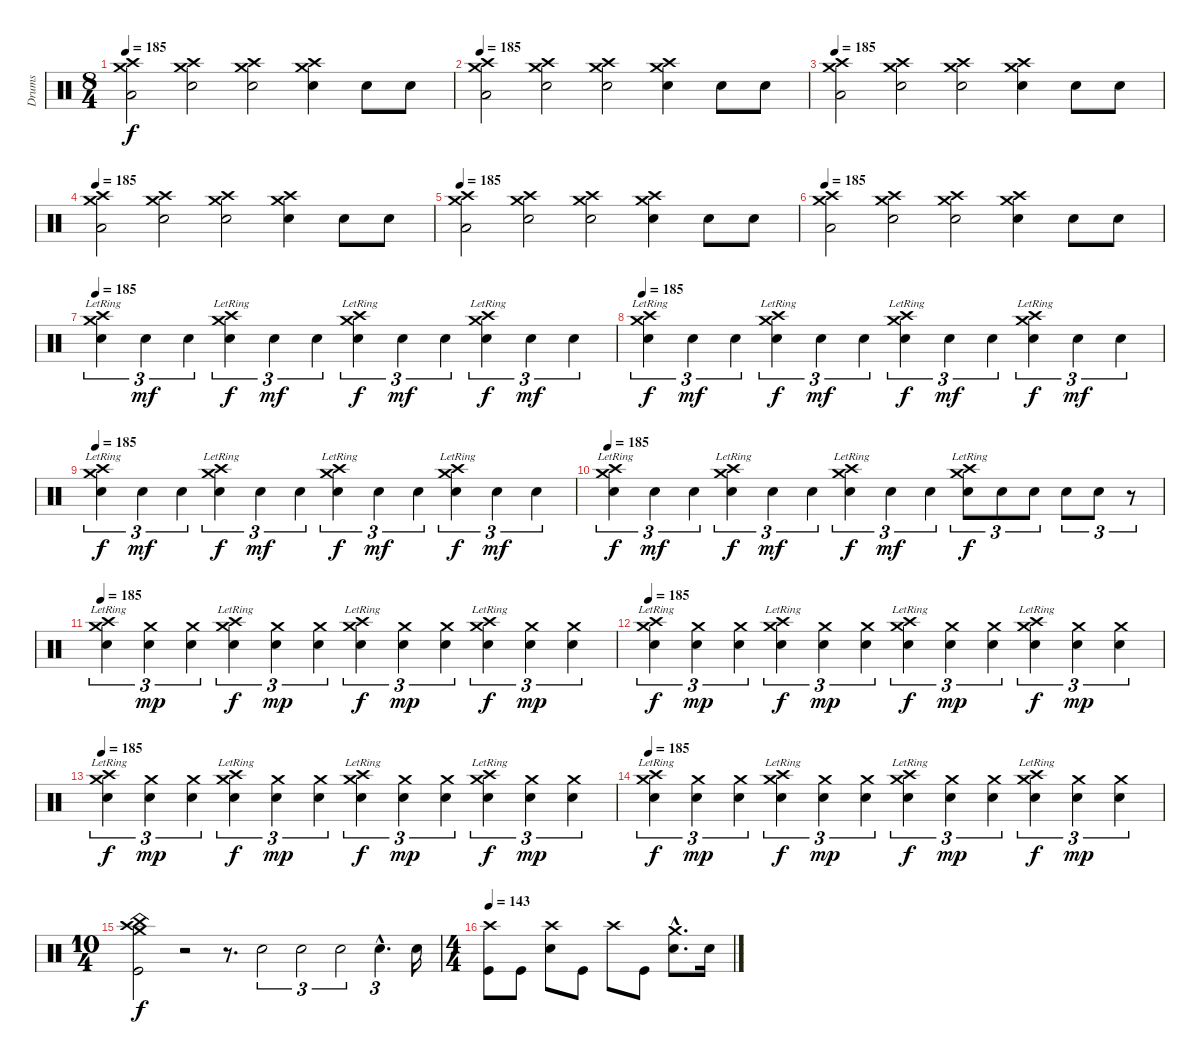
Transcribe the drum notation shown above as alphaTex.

\track ("Drums" "Drums") {instrument percussion}
\staff {score}
\articulation defaults
\ts (8 4)
\tempo 185
\clef neutral
\ks c
("Crash high (hit)" "Low Floor Tom (hit)" "Crash medium (hit)").2{dy f} ("Crash high (hit)" "Electric Snare (hit)" "Crash medium (hit)").2 ("Crash high (hit)" "Electric Snare (hit)" "Crash medium (hit)").2 ("Crash high (hit)" "Electric Snare (hit)" "Crash medium (hit)").4 "Electric Snare (hit)".8 "Electric Snare (hit)".8 |
\tempo 185
("Crash high (hit)" "Low Floor Tom (hit)" "Crash medium (hit)").2 ("Crash high (hit)" "Electric Snare (hit)" "Crash medium (hit)").2 ("Crash high (hit)" "Electric Snare (hit)" "Crash medium (hit)").2 ("Crash high (hit)" "Electric Snare (hit)" "Crash medium (hit)").4 "Electric Snare (hit)".8 "Electric Snare (hit)".8 |
\tempo 185
("Crash high (hit)" "Low Floor Tom (hit)" "Crash medium (hit)").2 ("Crash high (hit)" "Electric Snare (hit)" "Crash medium (hit)").2 ("Crash high (hit)" "Electric Snare (hit)" "Crash medium (hit)").2 ("Crash high (hit)" "Electric Snare (hit)" "Crash medium (hit)").4 "Electric Snare (hit)".8 "Electric Snare (hit)".8 |
\tempo 185
("Crash high (hit)" "Low Floor Tom (hit)" "Crash medium (hit)").2 ("Crash high (hit)" "Electric Snare (hit)" "Crash medium (hit)").2 ("Crash high (hit)" "Electric Snare (hit)" "Crash medium (hit)").2 ("Crash high (hit)" "Electric Snare (hit)" "Crash medium (hit)").4 "Electric Snare (hit)".8 "Electric Snare (hit)".8 |
\tempo 185
("Crash high (hit)" "Low Floor Tom (hit)" "Crash medium (hit)").2 ("Crash high (hit)" "Electric Snare (hit)" "Crash medium (hit)").2 ("Crash high (hit)" "Electric Snare (hit)" "Crash medium (hit)").2 ("Crash high (hit)" "Electric Snare (hit)" "Crash medium (hit)").4 "Electric Snare (hit)".8 "Electric Snare (hit)".8 |
\tempo 185
("Crash high (hit)" "Low Floor Tom (hit)" "Crash medium (hit)").2 ("Crash high (hit)" "Electric Snare (hit)" "Crash medium (hit)").2 ("Crash high (hit)" "Electric Snare (hit)" "Crash medium (hit)").2 ("Crash high (hit)" "Electric Snare (hit)" "Crash medium (hit)").4 "Electric Snare (hit)".8 "Electric Snare (hit)".8 |
\tempo 185
("Crash medium (hit)"{lr} "Crash high (hit)"{lr} "Electric Snare (hit)").4{tu (3 2)} "Electric Snare (hit)".4{tu (3 2) dy mf} "Electric Snare (hit)".4{tu (3 2)} ("Crash medium (hit)"{lr} "Crash high (hit)"{lr} "Electric Snare (hit)").4{tu (3 2) dy f} "Electric Snare (hit)".4{tu (3 2) dy mf} "Electric Snare (hit)".4{tu (3 2)} ("Crash medium (hit)"{lr} "Crash high (hit)"{lr} "Electric Snare (hit)").4{tu (3 2) dy f} "Electric Snare (hit)".4{tu (3 2) dy mf} "Electric Snare (hit)".4{tu (3 2)} ("Crash medium (hit)"{lr} "Crash high (hit)"{lr} "Electric Snare (hit)").4{tu (3 2) dy f} "Electric Snare (hit)".4{tu (3 2) dy mf} "Electric Snare (hit)".4{tu (3 2)} |
\tempo 185
("Crash medium (hit)"{lr} "Crash high (hit)"{lr} "Electric Snare (hit)").4{tu (3 2) dy f} "Electric Snare (hit)".4{tu (3 2) dy mf} "Electric Snare (hit)".4{tu (3 2)} ("Crash medium (hit)"{lr} "Crash high (hit)"{lr} "Electric Snare (hit)").4{tu (3 2) dy f} "Electric Snare (hit)".4{tu (3 2) dy mf} "Electric Snare (hit)".4{tu (3 2)} ("Crash medium (hit)"{lr} "Crash high (hit)"{lr} "Electric Snare (hit)").4{tu (3 2) dy f} "Electric Snare (hit)".4{tu (3 2) dy mf} "Electric Snare (hit)".4{tu (3 2)} ("Crash medium (hit)"{lr} "Crash high (hit)"{lr} "Electric Snare (hit)").4{tu (3 2) dy f} "Electric Snare (hit)".4{tu (3 2) dy mf} "Electric Snare (hit)".4{tu (3 2)} |
\tempo 185
("Crash medium (hit)"{lr} "Crash high (hit)"{lr} "Electric Snare (hit)").4{tu (3 2) dy f} "Electric Snare (hit)".4{tu (3 2) dy mf} "Electric Snare (hit)".4{tu (3 2)} ("Crash medium (hit)"{lr} "Crash high (hit)"{lr} "Electric Snare (hit)").4{tu (3 2) dy f} "Electric Snare (hit)".4{tu (3 2) dy mf} "Electric Snare (hit)".4{tu (3 2)} ("Crash medium (hit)"{lr} "Crash high (hit)"{lr} "Electric Snare (hit)").4{tu (3 2) dy f} "Electric Snare (hit)".4{tu (3 2) dy mf} "Electric Snare (hit)".4{tu (3 2)} ("Crash medium (hit)"{lr} "Crash high (hit)"{lr} "Electric Snare (hit)").4{tu (3 2) dy f} "Electric Snare (hit)".4{tu (3 2) dy mf} "Electric Snare (hit)".4{tu (3 2)} |
\tempo 185
("Crash medium (hit)"{lr} "Crash high (hit)"{lr} "Electric Snare (hit)").4{tu (3 2) dy f} "Electric Snare (hit)".4{tu (3 2) dy mf} "Electric Snare (hit)".4{tu (3 2)} ("Crash medium (hit)"{lr} "Crash high (hit)"{lr} "Electric Snare (hit)").4{tu (3 2) dy f} "Electric Snare (hit)".4{tu (3 2) dy mf} "Electric Snare (hit)".4{tu (3 2)} ("Crash medium (hit)"{lr} "Crash high (hit)"{lr} "Electric Snare (hit)").4{tu (3 2) dy f} "Electric Snare (hit)".4{tu (3 2) dy mf} "Electric Snare (hit)".4{tu (3 2)} ("Crash medium (hit)"{lr} "Crash high (hit)"{lr} "Electric Snare (hit)").8{tu (3 2) dy f} "Electric Snare (hit)".8{tu (3 2)} "Electric Snare (hit)".8{tu (3 2)} "Electric Snare (hit)".8{tu (3 2)} "Electric Snare (hit)".8{tu (3 2)} r.8{tu (3 2)} |
\tempo 185
("Crash medium (hit)"{lr} "Crash high (hit)"{lr} "Electric Snare (hit)").4{tu (3 2)} ("Crash medium (hit)" "Electric Snare (hit)").4{tu (3 2) dy mp} ("Crash medium (hit)" "Electric Snare (hit)").4{tu (3 2)} ("Crash medium (hit)"{lr} "Crash high (hit)"{lr} "Electric Snare (hit)").4{tu (3 2) dy f} ("Crash medium (hit)" "Electric Snare (hit)").4{tu (3 2) dy mp} ("Crash medium (hit)" "Electric Snare (hit)").4{tu (3 2)} ("Crash medium (hit)"{lr} "Crash high (hit)"{lr} "Electric Snare (hit)").4{tu (3 2) dy f} ("Crash medium (hit)" "Electric Snare (hit)").4{tu (3 2) dy mp} ("Crash medium (hit)" "Electric Snare (hit)").4{tu (3 2)} ("Crash medium (hit)"{lr} "Crash high (hit)"{lr} "Electric Snare (hit)").4{tu (3 2) dy f} ("Crash medium (hit)" "Electric Snare (hit)").4{tu (3 2) dy mp} ("Crash medium (hit)" "Electric Snare (hit)").4{tu (3 2)} |
\tempo 185
("Crash medium (hit)"{lr} "Crash high (hit)"{lr} "Electric Snare (hit)").4{tu (3 2) dy f} ("Crash medium (hit)" "Electric Snare (hit)").4{tu (3 2) dy mp} ("Crash medium (hit)" "Electric Snare (hit)").4{tu (3 2)} ("Crash medium (hit)"{lr} "Crash high (hit)"{lr} "Electric Snare (hit)").4{tu (3 2) dy f} ("Crash medium (hit)" "Electric Snare (hit)").4{tu (3 2) dy mp} ("Crash medium (hit)" "Electric Snare (hit)").4{tu (3 2)} ("Crash medium (hit)"{lr} "Crash high (hit)"{lr} "Electric Snare (hit)").4{tu (3 2) dy f} ("Crash medium (hit)" "Electric Snare (hit)").4{tu (3 2) dy mp} ("Crash medium (hit)" "Electric Snare (hit)").4{tu (3 2)} ("Crash medium (hit)"{lr} "Crash high (hit)"{lr} "Electric Snare (hit)").4{tu (3 2) dy f} ("Crash medium (hit)" "Electric Snare (hit)").4{tu (3 2) dy mp} ("Crash medium (hit)" "Electric Snare (hit)").4{tu (3 2)} |
\tempo 185
("Crash medium (hit)"{lr} "Crash high (hit)"{lr} "Electric Snare (hit)").4{tu (3 2) dy f} ("Crash medium (hit)" "Electric Snare (hit)").4{tu (3 2) dy mp} ("Crash medium (hit)" "Electric Snare (hit)").4{tu (3 2)} ("Crash medium (hit)"{lr} "Crash high (hit)"{lr} "Electric Snare (hit)").4{tu (3 2) dy f} ("Crash medium (hit)" "Electric Snare (hit)").4{tu (3 2) dy mp} ("Crash medium (hit)" "Electric Snare (hit)").4{tu (3 2)} ("Crash medium (hit)"{lr} "Crash high (hit)"{lr} "Electric Snare (hit)").4{tu (3 2) dy f} ("Crash medium (hit)" "Electric Snare (hit)").4{tu (3 2) dy mp} ("Crash medium (hit)" "Electric Snare (hit)").4{tu (3 2)} ("Crash medium (hit)"{lr} "Crash high (hit)"{lr} "Electric Snare (hit)").4{tu (3 2) dy f} ("Crash medium (hit)" "Electric Snare (hit)").4{tu (3 2) dy mp} ("Crash medium (hit)" "Electric Snare (hit)").4{tu (3 2)} |
\tempo 185
("Crash medium (hit)"{lr} "Crash high (hit)"{lr} "Electric Snare (hit)").4{tu (3 2) dy f} ("Crash medium (hit)" "Electric Snare (hit)").4{tu (3 2) dy mp} ("Crash medium (hit)" "Electric Snare (hit)").4{tu (3 2)} ("Crash medium (hit)"{lr} "Crash high (hit)"{lr} "Electric Snare (hit)").4{tu (3 2) dy f} ("Crash medium (hit)" "Electric Snare (hit)").4{tu (3 2) dy mp} ("Crash medium (hit)" "Electric Snare (hit)").4{tu (3 2)} ("Crash medium (hit)"{lr} "Crash high (hit)"{lr} "Electric Snare (hit)").4{tu (3 2) dy f} ("Crash medium (hit)" "Electric Snare (hit)").4{tu (3 2) dy mp} ("Crash medium (hit)" "Electric Snare (hit)").4{tu (3 2)} ("Crash medium (hit)"{lr} "Crash high (hit)"{lr} "Electric Snare (hit)").4{tu (3 2) dy f} ("Crash medium (hit)" "Electric Snare (hit)").4{tu (3 2) dy mp} ("Crash medium (hit)" "Electric Snare (hit)").4{tu (3 2)} |
\ts (10 4)
("China (hit)" "Crash medium (hit)" "Crash high (hit)" "Kick (hit)").2{dy f} r.2 r.8{d} "Electric Snare (hit)".2{tu (3 2)} "Electric Snare (hit)".2{tu (3 2)} "Electric Snare (hit)".2{tu (3 2)} "Electric Snare (hit)"{hac}.4{d tu (3 2)} "Electric Snare (hit)".16 |
\ts (4 4)
\tempo 143
("Crash high (hit)" "Kick (hit)").8 "Kick (hit)".8 ("Crash high (hit)" "Electric Snare (hit)").8 "Kick (hit)".8 "Crash high (hit)".8 "Kick (hit)".8 ("Crash medium (hit)"{hac} "Electric Snare (hit)"{hac}).8{d} "Electric Snare (hit)".16
